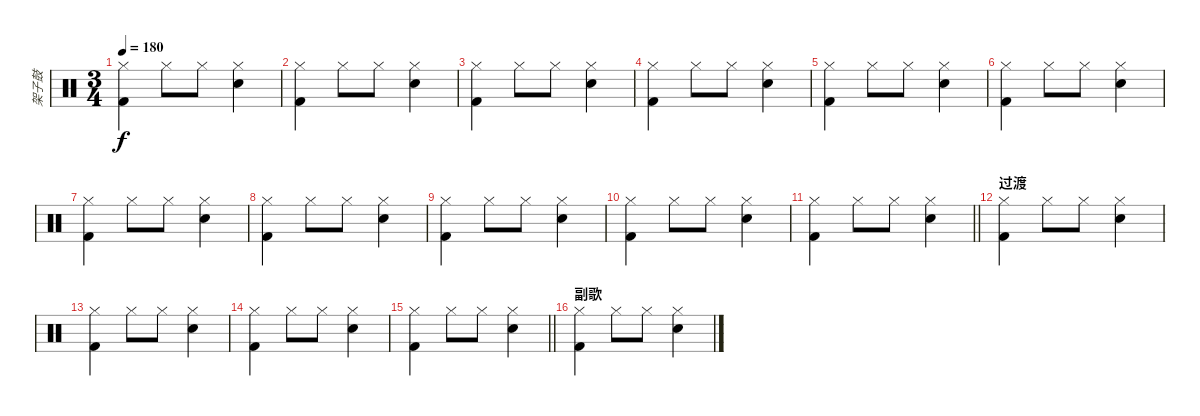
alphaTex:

\track ("架子鼓" "架子鼓") {instrument percussion}
\staff {score}
\articulation defaults
\ts (3 4)
\tempo 180
\clef neutral
\ks c
("Hi-Hat (closed)" "Kick (hit) 2").4{dy f} "Hi-Hat (closed)".8 "Hi-Hat (closed)".8 ("Hi-Hat (closed)" "Electric Snare (hit)").4 |
("Hi-Hat (closed)" "Kick (hit) 2").4 "Hi-Hat (closed)".8 "Hi-Hat (closed)".8 ("Hi-Hat (closed)" "Electric Snare (hit)").4 |
("Hi-Hat (closed)" "Kick (hit) 2").4 "Hi-Hat (closed)".8 "Hi-Hat (closed)".8 ("Hi-Hat (closed)" "Electric Snare (hit)").4 |
("Hi-Hat (closed)" "Kick (hit) 2").4 "Hi-Hat (closed)".8 "Hi-Hat (closed)".8 ("Hi-Hat (closed)" "Electric Snare (hit)").4 |
("Hi-Hat (closed)" "Kick (hit) 2").4 "Hi-Hat (closed)".8 "Hi-Hat (closed)".8 ("Hi-Hat (closed)" "Electric Snare (hit)").4 |
("Hi-Hat (closed)" "Kick (hit) 2").4 "Hi-Hat (closed)".8 "Hi-Hat (closed)".8 ("Hi-Hat (closed)" "Electric Snare (hit)").4 |
("Hi-Hat (closed)" "Kick (hit) 2").4 "Hi-Hat (closed)".8 "Hi-Hat (closed)".8 ("Hi-Hat (closed)" "Electric Snare (hit)").4 |
("Hi-Hat (closed)" "Kick (hit) 2").4 "Hi-Hat (closed)".8 "Hi-Hat (closed)".8 ("Hi-Hat (closed)" "Electric Snare (hit)").4 |
("Hi-Hat (closed)" "Kick (hit) 2").4 "Hi-Hat (closed)".8 "Hi-Hat (closed)".8 ("Hi-Hat (closed)" "Electric Snare (hit)").4 |
("Hi-Hat (closed)" "Kick (hit) 2").4 "Hi-Hat (closed)".8 "Hi-Hat (closed)".8 ("Hi-Hat (closed)" "Electric Snare (hit)").4 |
\barLineRight lightlight
("Hi-Hat (closed)" "Kick (hit) 2").4 "Hi-Hat (closed)".8 "Hi-Hat (closed)".8 ("Hi-Hat (closed)" "Electric Snare (hit)").4 |
\section ("" "过渡")
("Hi-Hat (closed)" "Kick (hit) 2").4 "Hi-Hat (closed)".8 "Hi-Hat (closed)".8 ("Hi-Hat (closed)" "Electric Snare (hit)").4 |
("Hi-Hat (closed)" "Kick (hit) 2").4 "Hi-Hat (closed)".8 "Hi-Hat (closed)".8 ("Hi-Hat (closed)" "Electric Snare (hit)").4 |
("Hi-Hat (closed)" "Kick (hit) 2").4 "Hi-Hat (closed)".8 "Hi-Hat (closed)".8 ("Hi-Hat (closed)" "Electric Snare (hit)").4 |
\barLineRight lightlight
("Hi-Hat (closed)" "Kick (hit) 2").4 "Hi-Hat (closed)".8 "Hi-Hat (closed)".8 ("Hi-Hat (closed)" "Electric Snare (hit)").4 |
\section ("" "副歌")
("Hi-Hat (closed)" "Kick (hit) 2").4 "Hi-Hat (closed)".8 "Hi-Hat (closed)".8 ("Hi-Hat (closed)" "Electric Snare (hit)").4
